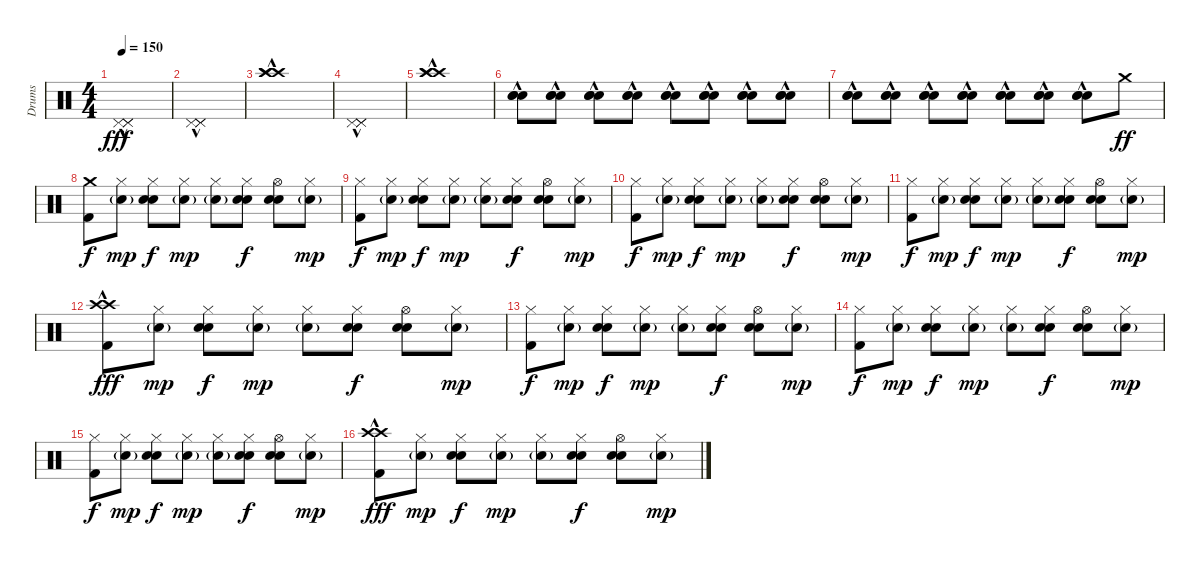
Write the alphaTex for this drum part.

\track ("Drums" "Drums") {instrument percussion}
\staff {score}
\articulation defaults
\ts (4 4)
\tempo 150
\clef neutral
\ks c
("Pedal Hi-Hat (hit)"{hac} "Pedal Hi-Hat (hit)"{hac} "Pedal Hi-Hat (hit)"{hac}).1{dy fff} |
("Pedal Hi-Hat (hit)"{hac} "Pedal Hi-Hat (hit)"{hac} "Pedal Hi-Hat (hit)"{hac}).1 |
("Crash high (hit)"{hac} "Crash high (hit)"{hac} "Crash high (hit)"{hac}).1 |
("Pedal Hi-Hat (hit)" "Pedal Hi-Hat (hit)"{hac} "Pedal Hi-Hat (hit)"{hac}).1 |
("Crash high (hit)"{hac} "Crash high (hit)"{hac} "Crash high (hit)"{hac}).1 |
("Electric Snare (hit)"{hac} "Electric Snare (hit)"{hac} "Electric Snare (hit)"{hac}).8 ("Electric Snare (hit)"{hac} "Electric Snare (hit)"{hac} "Electric Snare (hit)"{hac}).8 ("Electric Snare (hit)"{hac} "Electric Snare (hit)"{hac} "Electric Snare (hit)"{hac}).8 ("Electric Snare (hit)"{hac} "Electric Snare (hit)"{hac} "Electric Snare (hit)"{hac}).8 ("Electric Snare (hit)"{hac} "Electric Snare (hit)"{hac} "Electric Snare (hit)"{hac}).8 ("Electric Snare (hit)"{hac} "Electric Snare (hit)"{hac} "Electric Snare (hit)"{hac}).8 ("Electric Snare (hit)"{hac} "Electric Snare (hit)"{hac} "Electric Snare (hit)"{hac}).8 ("Electric Snare (hit)"{hac} "Electric Snare (hit)"{hac} "Electric Snare (hit)"{hac}).8 |
("Electric Snare (hit)"{hac} "Electric Snare (hit)"{hac} "Electric Snare (hit)"{hac}).8 ("Electric Snare (hit)"{hac} "Electric Snare (hit)"{hac} "Electric Snare (hit)"{hac}).8 ("Electric Snare (hit)"{hac} "Electric Snare (hit)"{hac} "Electric Snare (hit)"{hac}).8 ("Electric Snare (hit)"{hac} "Electric Snare (hit)"{hac} "Electric Snare (hit)"{hac}).8 ("Electric Snare (hit)"{hac} "Electric Snare (hit)"{hac} "Electric Snare (hit)"{hac}).8 ("Electric Snare (hit)"{hac} "Electric Snare (hit)"{hac} "Electric Snare (hit)"{hac}).8 ("Electric Snare (hit)"{hac} "Electric Snare (hit)"{hac} "Electric Snare (hit)"{hac}).8 "Crash medium (hit)".8{dy ff} |
("Crash medium (hit)" "Kick (hit) 2").8{dy f} ("Hi-Hat (closed)" "Electric Snare (hit)"{g}).8{dy mp} ("Hi-Hat (closed)" "Electric Snare (hit)" "Hand Clap (hit)").8{dy f} ("Hi-Hat (closed)" "Electric Snare (hit)"{g}).8{dy mp} ("Hi-Hat (closed)" "Electric Snare (hit)"{g}).8 ("Hi-Hat (closed)" "Electric Snare (hit)" "Hand Clap (hit)").8{dy f} ("Hi-Hat (open)" "Electric Snare (hit)" "Hand Clap (hit)").8 ("Hi-Hat (closed)" "Electric Snare (hit)"{g}).8{dy mp} |
("Hi-Hat (closed)" "Kick (hit) 2").8{dy f} ("Hi-Hat (closed)" "Electric Snare (hit)"{g}).8{dy mp} ("Hi-Hat (closed)" "Electric Snare (hit)" "Hand Clap (hit)").8{dy f} ("Hi-Hat (closed)" "Electric Snare (hit)"{g}).8{dy mp} ("Hi-Hat (closed)" "Electric Snare (hit)"{g}).8 ("Hi-Hat (closed)" "Electric Snare (hit)" "Hand Clap (hit)").8{dy f} ("Hi-Hat (open)" "Electric Snare (hit)" "Hand Clap (hit)").8 ("Hi-Hat (closed)" "Electric Snare (hit)"{g}).8{dy mp} |
("Hi-Hat (closed)" "Kick (hit) 2").8{dy f} ("Hi-Hat (closed)" "Electric Snare (hit)"{g}).8{dy mp} ("Hi-Hat (closed)" "Electric Snare (hit)" "Hand Clap (hit)").8{dy f} ("Hi-Hat (closed)" "Electric Snare (hit)"{g}).8{dy mp} ("Hi-Hat (closed)" "Electric Snare (hit)"{g}).8 ("Hi-Hat (closed)" "Electric Snare (hit)" "Hand Clap (hit)").8{dy f} ("Hi-Hat (open)" "Electric Snare (hit)" "Hand Clap (hit)").8 ("Hi-Hat (closed)" "Electric Snare (hit)"{g}).8{dy mp} |
("Hi-Hat (closed)" "Kick (hit) 2").8{dy f} ("Hi-Hat (closed)" "Electric Snare (hit)"{g}).8{dy mp} ("Hi-Hat (closed)" "Electric Snare (hit)" "Hand Clap (hit)").8{dy f} ("Hi-Hat (closed)" "Electric Snare (hit)"{g}).8{dy mp} ("Hi-Hat (closed)" "Electric Snare (hit)"{g}).8 ("Hi-Hat (closed)" "Electric Snare (hit)" "Hand Clap (hit)").8{dy f} ("Hi-Hat (open)" "Electric Snare (hit)" "Hand Clap (hit)").8 ("Hi-Hat (closed)" "Electric Snare (hit)"{g}).8{dy mp} |
("Crash high (hit)"{hac} "Crash high (hit)"{hac} "Kick (hit) 2").8{dy fff} ("Hi-Hat (closed)" "Electric Snare (hit)"{g}).8{dy mp} ("Hi-Hat (closed)" "Electric Snare (hit)" "Hand Clap (hit)").8{dy f} ("Hi-Hat (closed)" "Electric Snare (hit)"{g}).8{dy mp} ("Hi-Hat (closed)" "Electric Snare (hit)"{g}).8 ("Hi-Hat (closed)" "Electric Snare (hit)" "Hand Clap (hit)").8{dy f} ("Hi-Hat (open)" "Electric Snare (hit)" "Hand Clap (hit)").8 ("Hi-Hat (closed)" "Electric Snare (hit)"{g}).8{dy mp} |
("Hi-Hat (closed)" "Kick (hit) 2").8{dy f} ("Hi-Hat (closed)" "Electric Snare (hit)"{g}).8{dy mp} ("Hi-Hat (closed)" "Electric Snare (hit)" "Hand Clap (hit)").8{dy f} ("Hi-Hat (closed)" "Electric Snare (hit)"{g}).8{dy mp} ("Hi-Hat (closed)" "Electric Snare (hit)"{g}).8 ("Hi-Hat (closed)" "Electric Snare (hit)" "Hand Clap (hit)").8{dy f} ("Hi-Hat (open)" "Electric Snare (hit)" "Hand Clap (hit)").8 ("Hi-Hat (closed)" "Electric Snare (hit)"{g}).8{dy mp} |
("Hi-Hat (closed)" "Kick (hit) 2").8{dy f} ("Hi-Hat (closed)" "Electric Snare (hit)"{g}).8{dy mp} ("Hi-Hat (closed)" "Electric Snare (hit)" "Hand Clap (hit)").8{dy f} ("Hi-Hat (closed)" "Electric Snare (hit)"{g}).8{dy mp} ("Hi-Hat (closed)" "Electric Snare (hit)"{g}).8 ("Hi-Hat (closed)" "Electric Snare (hit)" "Hand Clap (hit)").8{dy f} ("Hi-Hat (open)" "Electric Snare (hit)" "Hand Clap (hit)").8 ("Hi-Hat (closed)" "Electric Snare (hit)"{g}).8{dy mp} |
("Hi-Hat (closed)" "Kick (hit) 2").8{dy f} ("Hi-Hat (closed)" "Electric Snare (hit)"{g}).8{dy mp} ("Hi-Hat (closed)" "Electric Snare (hit)" "Hand Clap (hit)").8{dy f} ("Hi-Hat (closed)" "Electric Snare (hit)"{g}).8{dy mp} ("Hi-Hat (closed)" "Electric Snare (hit)"{g}).8 ("Hi-Hat (closed)" "Electric Snare (hit)" "Hand Clap (hit)").8{dy f} ("Hi-Hat (open)" "Electric Snare (hit)" "Hand Clap (hit)").8 ("Hi-Hat (closed)" "Electric Snare (hit)"{g}).8{dy mp} |
("Crash high (hit)"{hac} "Crash high (hit)"{hac} "Kick (hit) 2").8{dy fff} ("Hi-Hat (closed)" "Electric Snare (hit)"{g}).8{dy mp} ("Hi-Hat (closed)" "Electric Snare (hit)" "Hand Clap (hit)").8{dy f} ("Hi-Hat (closed)" "Electric Snare (hit)"{g}).8{dy mp} ("Hi-Hat (closed)" "Electric Snare (hit)"{g}).8 ("Hi-Hat (closed)" "Electric Snare (hit)" "Hand Clap (hit)").8{dy f} ("Hi-Hat (open)" "Electric Snare (hit)" "Hand Clap (hit)").8 ("Hi-Hat (closed)" "Electric Snare (hit)"{g}).8{dy mp}
